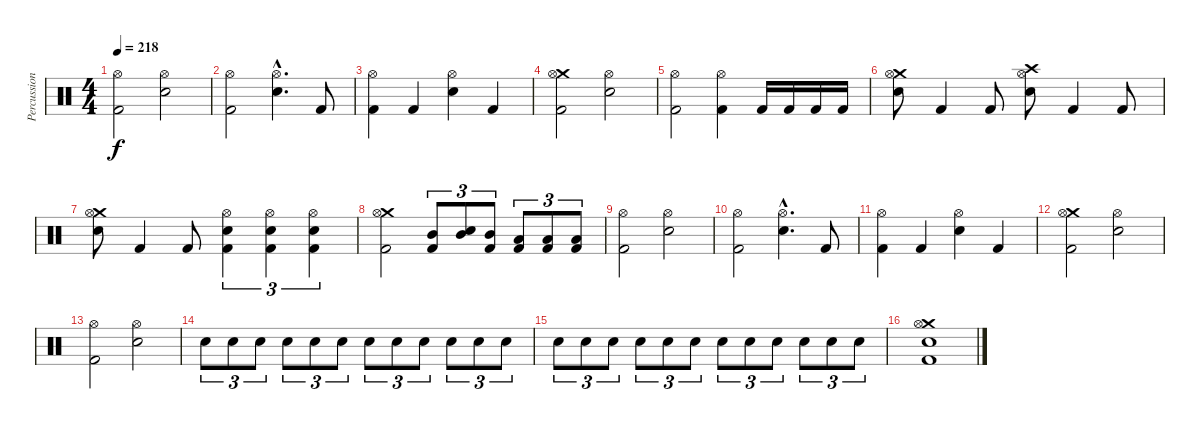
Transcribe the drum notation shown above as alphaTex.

\track ("Percussion" "Percussion") {instrument percussion}
\staff {score}
\articulation defaults
\ts (4 4)
\tempo 218
\clef neutral
\ks c
("Hi-Hat (open)" "Kick (hit) 2").2{dy f} ("Hi-Hat (open)" "Electric Snare (hit)").2 |
("Hi-Hat (open)" "Kick (hit) 2").2 ("Hi-Hat (open)"{hac} "Electric Snare (hit)"{hac}).4{d} "Kick (hit) 2".8 |
("Hi-Hat (open)" "Kick (hit) 2").4 "Kick (hit) 2".4 ("Hi-Hat (open)" "Electric Snare (hit)").4 "Kick (hit) 2".4 |
("Crash medium (hit)" "Hi-Hat (open)" "Kick (hit) 2").2 ("Hi-Hat (open)" "Electric Snare (hit)").2 |
("Hi-Hat (open)" "Kick (hit) 2").2 ("Hi-Hat (open)" "Kick (hit) 2").4 "Kick (hit) 2".16 "Kick (hit) 2".16 "Kick (hit) 2".16 "Kick (hit) 2".16 |
("Crash medium (hit)" "Hi-Hat (open)" "Electric Snare (hit)").8 "Kick (hit) 2".4 "Kick (hit) 2".8 ("Crash high (hit)" "Hi-Hat (open)" "Electric Snare (hit)").8 "Kick (hit) 2".4 "Kick (hit) 2".8 |
("Crash medium (hit)" "Hi-Hat (open)" "Electric Snare (hit)").8 "Kick (hit) 2".4 "Kick (hit) 2".8 ("Hi-Hat (open)" "Electric Snare (hit)" "Kick (hit) 2").4{tu (3 2)} ("Hi-Hat (open)" "Electric Snare (hit)" "Kick (hit) 2").4{tu (3 2)} ("Hi-Hat (open)" "Electric Snare (hit)" "Kick (hit) 2").4{tu (3 2)} |
("Crash medium (hit)" "Hi-Hat (open)" "Kick (hit) 2").2 ("Mid Tom (hit)" "Kick (hit) 2").8{tu (3 2)} ("Mid Tom (hit)" "Snare (hit)").8{tu (3 2)} ("Mid Tom (hit)" "Kick (hit) 2").8{tu (3 2)} ("Low Tom (hit)" "Kick (hit) 2").8{tu (3 2)} ("Low Tom (hit)" "Kick (hit) 2").8{tu (3 2)} ("Low Tom (hit)" "Kick (hit) 2").8{tu (3 2)} |
("Hi-Hat (open)" "Kick (hit) 2").2 ("Hi-Hat (open)" "Electric Snare (hit)").2 |
("Hi-Hat (open)" "Kick (hit) 2").2 ("Hi-Hat (open)"{hac} "Electric Snare (hit)"{hac}).4{d} "Kick (hit) 2".8 |
("Hi-Hat (open)" "Kick (hit) 2").4 "Kick (hit) 2".4 ("Hi-Hat (open)" "Electric Snare (hit)").4 "Kick (hit) 2".4 |
("Crash medium (hit)" "Hi-Hat (open)" "Kick (hit) 2").2 ("Hi-Hat (open)" "Electric Snare (hit)").2 |
("Hi-Hat (open)" "Kick (hit) 2").2 ("Hi-Hat (open)" "Electric Snare (hit)").2 |
"Electric Snare (hit)".8{tu (3 2)} "Electric Snare (hit)".8{tu (3 2)} "Electric Snare (hit)".8{tu (3 2)} "Electric Snare (hit)".8{tu (3 2)} "Electric Snare (hit)".8{tu (3 2)} "Electric Snare (hit)".8{tu (3 2)} "Electric Snare (hit)".8{tu (3 2)} "Electric Snare (hit)".8{tu (3 2)} "Electric Snare (hit)".8{tu (3 2)} "Electric Snare (hit)".8{tu (3 2)} "Electric Snare (hit)".8{tu (3 2)} "Electric Snare (hit)".8{tu (3 2)} |
"Electric Snare (hit)".8{tu (3 2)} "Electric Snare (hit)".8{tu (3 2)} "Electric Snare (hit)".8{tu (3 2)} "Electric Snare (hit)".8{tu (3 2)} "Electric Snare (hit)".8{tu (3 2)} "Electric Snare (hit)".8{tu (3 2)} "Electric Snare (hit)".8{tu (3 2)} "Electric Snare (hit)".8{tu (3 2)} "Electric Snare (hit)".8{tu (3 2)} "Electric Snare (hit)".8{tu (3 2)} "Electric Snare (hit)".8{tu (3 2)} "Electric Snare (hit)".8{tu (3 2)} |
("Crash medium (hit)" "Hi-Hat (open)" "Electric Snare (hit)" "Kick (hit) 2").1
